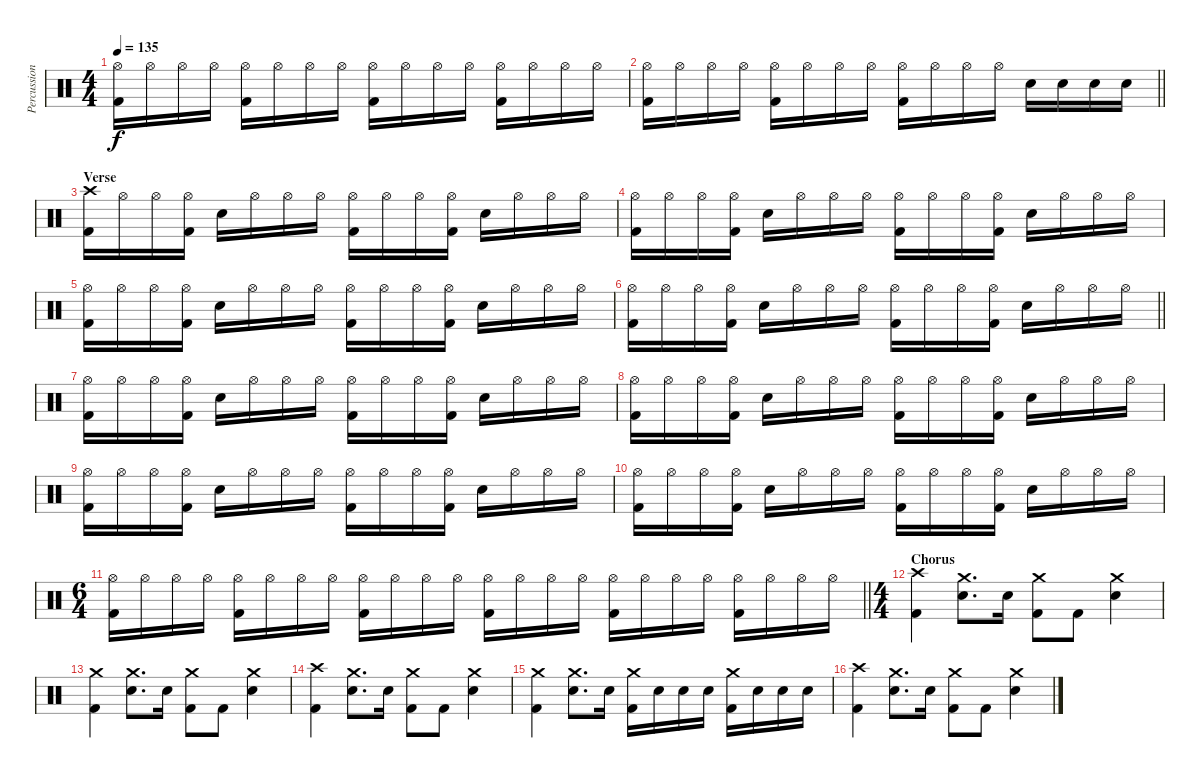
\track ("Percussion" "Percussion") {instrument percussion}
\staff {score}
\articulation defaults
\ts (4 4)
\tempo 135
\clef neutral
\ks c
("Hi-Hat (open)" "Kick (hit) 2").16{dy f} "Hi-Hat (open)".16 "Hi-Hat (open)".16 "Hi-Hat (open)".16 ("Hi-Hat (open)" "Kick (hit) 2").16 "Hi-Hat (open)".16 "Hi-Hat (open)".16 "Hi-Hat (open)".16 ("Hi-Hat (open)" "Kick (hit) 2").16 "Hi-Hat (open)".16 "Hi-Hat (open)".16 "Hi-Hat (open)".16 ("Hi-Hat (open)" "Kick (hit) 2").16 "Hi-Hat (open)".16 "Hi-Hat (open)".16 "Hi-Hat (open)".16 |
\barLineRight lightlight
("Hi-Hat (open)" "Kick (hit) 2").16 "Hi-Hat (open)".16 "Hi-Hat (open)".16 "Hi-Hat (open)".16 ("Hi-Hat (open)" "Kick (hit) 2").16 "Hi-Hat (open)".16 "Hi-Hat (open)".16 "Hi-Hat (open)".16 ("Hi-Hat (open)" "Kick (hit) 2").16 "Hi-Hat (open)".16 "Hi-Hat (open)".16 "Hi-Hat (open)".16 "Electric Snare (hit)".16 "Electric Snare (hit)".16 "Electric Snare (hit)".16 "Electric Snare (hit)".16 |
\section ("" "Verse")
("Crash high (hit)" "Kick (hit) 2").16 "Hi-Hat (open)".16 "Hi-Hat (open)".16 ("Hi-Hat (open)" "Kick (hit) 2").16 "Electric Snare (hit)".16 "Hi-Hat (open)".16 "Hi-Hat (open)".16 "Hi-Hat (open)".16 ("Hi-Hat (open)" "Kick (hit) 2").16 "Hi-Hat (open)".16 "Hi-Hat (open)".16 ("Hi-Hat (open)" "Kick (hit) 2").16 "Electric Snare (hit)".16 "Hi-Hat (open)".16 "Hi-Hat (open)".16 "Hi-Hat (open)".16 |
("Hi-Hat (open)" "Kick (hit) 2").16 "Hi-Hat (open)".16 "Hi-Hat (open)".16 ("Hi-Hat (open)" "Kick (hit) 2").16 "Electric Snare (hit)".16 "Hi-Hat (open)".16 "Hi-Hat (open)".16 "Hi-Hat (open)".16 ("Hi-Hat (open)" "Kick (hit) 2").16 "Hi-Hat (open)".16 "Hi-Hat (open)".16 ("Hi-Hat (open)" "Kick (hit) 2").16 "Electric Snare (hit)".16 "Hi-Hat (open)".16 "Hi-Hat (open)".16 "Hi-Hat (open)".16 |
("Hi-Hat (open)" "Kick (hit) 2").16 "Hi-Hat (open)".16 "Hi-Hat (open)".16 ("Hi-Hat (open)" "Kick (hit) 2").16 "Electric Snare (hit)".16 "Hi-Hat (open)".16 "Hi-Hat (open)".16 "Hi-Hat (open)".16 ("Hi-Hat (open)" "Kick (hit) 2").16 "Hi-Hat (open)".16 "Hi-Hat (open)".16 ("Hi-Hat (open)" "Kick (hit) 2").16 "Electric Snare (hit)".16 "Hi-Hat (open)".16 "Hi-Hat (open)".16 "Hi-Hat (open)".16 |
\barLineRight lightlight
("Hi-Hat (open)" "Kick (hit) 2").16 "Hi-Hat (open)".16 "Hi-Hat (open)".16 ("Hi-Hat (open)" "Kick (hit) 2").16 "Electric Snare (hit)".16 "Hi-Hat (open)".16 "Hi-Hat (open)".16 "Hi-Hat (open)".16 ("Hi-Hat (open)" "Kick (hit) 2").16 "Hi-Hat (open)".16 "Hi-Hat (open)".16 ("Hi-Hat (open)" "Kick (hit) 2").16 "Electric Snare (hit)".16 "Hi-Hat (open)".16 "Hi-Hat (open)".16 "Hi-Hat (open)".16 |
("Hi-Hat (open)" "Kick (hit) 2").16 "Hi-Hat (open)".16 "Hi-Hat (open)".16 ("Hi-Hat (open)" "Kick (hit) 2").16 "Electric Snare (hit)".16 "Hi-Hat (open)".16 "Hi-Hat (open)".16 "Hi-Hat (open)".16 ("Hi-Hat (open)" "Kick (hit) 2").16 "Hi-Hat (open)".16 "Hi-Hat (open)".16 ("Hi-Hat (open)" "Kick (hit) 2").16 "Electric Snare (hit)".16 "Hi-Hat (open)".16 "Hi-Hat (open)".16 "Hi-Hat (open)".16 |
("Hi-Hat (open)" "Kick (hit) 2").16 "Hi-Hat (open)".16 "Hi-Hat (open)".16 ("Hi-Hat (open)" "Kick (hit) 2").16 "Electric Snare (hit)".16 "Hi-Hat (open)".16 "Hi-Hat (open)".16 "Hi-Hat (open)".16 ("Hi-Hat (open)" "Kick (hit) 2").16 "Hi-Hat (open)".16 "Hi-Hat (open)".16 ("Hi-Hat (open)" "Kick (hit) 2").16 "Electric Snare (hit)".16 "Hi-Hat (open)".16 "Hi-Hat (open)".16 "Hi-Hat (open)".16 |
("Hi-Hat (open)" "Kick (hit) 2").16 "Hi-Hat (open)".16 "Hi-Hat (open)".16 ("Hi-Hat (open)" "Kick (hit) 2").16 "Electric Snare (hit)".16 "Hi-Hat (open)".16 "Hi-Hat (open)".16 "Hi-Hat (open)".16 ("Hi-Hat (open)" "Kick (hit) 2").16 "Hi-Hat (open)".16 "Hi-Hat (open)".16 ("Hi-Hat (open)" "Kick (hit) 2").16 "Electric Snare (hit)".16 "Hi-Hat (open)".16 "Hi-Hat (open)".16 "Hi-Hat (open)".16 |
("Hi-Hat (open)" "Kick (hit) 2").16 "Hi-Hat (open)".16 "Hi-Hat (open)".16 ("Hi-Hat (open)" "Kick (hit) 2").16 "Electric Snare (hit)".16 "Hi-Hat (open)".16 "Hi-Hat (open)".16 "Hi-Hat (open)".16 ("Hi-Hat (open)" "Kick (hit) 2").16 "Hi-Hat (open)".16 "Hi-Hat (open)".16 ("Hi-Hat (open)" "Kick (hit) 2").16 "Electric Snare (hit)".16 "Hi-Hat (open)".16 "Hi-Hat (open)".16 "Hi-Hat (open)".16 |
\ts (6 4)
\barLineRight lightlight
("Hi-Hat (open)" "Kick (hit) 2").16 "Hi-Hat (open)".16 "Hi-Hat (open)".16 "Hi-Hat (open)".16 ("Hi-Hat (open)" "Kick (hit) 2").16 "Hi-Hat (open)".16 "Hi-Hat (open)".16 "Hi-Hat (open)".16 ("Hi-Hat (open)" "Kick (hit) 2").16 "Hi-Hat (open)".16 "Hi-Hat (open)".16 "Hi-Hat (open)".16 ("Hi-Hat (open)" "Kick (hit) 2").16 "Hi-Hat (open)".16 "Hi-Hat (open)".16 "Hi-Hat (open)".16 ("Hi-Hat (open)" "Kick (hit) 2").16 "Hi-Hat (open)".16 "Hi-Hat (open)".16 "Hi-Hat (open)".16 ("Hi-Hat (open)" "Kick (hit) 2").16 "Hi-Hat (open)".16 "Hi-Hat (open)".16 "Hi-Hat (open)".16 |
\ts (4 4)
\section ("" "Chorus")
("Crash high (hit)" "Kick (hit) 2").4 ("Crash medium (hit)" "Electric Snare (hit)").8{d} "Electric Snare (hit)".16 ("Crash medium (hit)" "Kick (hit) 2").8 "Kick (hit) 2".8 ("Crash medium (hit)" "Electric Snare (hit)").4 |
("Crash medium (hit)" "Kick (hit) 2").4 ("Crash medium (hit)" "Electric Snare (hit)").8{d} "Electric Snare (hit)".16 ("Crash medium (hit)" "Kick (hit) 2").8 "Kick (hit) 2".8 ("Crash medium (hit)" "Electric Snare (hit)").4 |
("Crash high (hit)" "Kick (hit) 2").4 ("Crash medium (hit)" "Electric Snare (hit)").8{d} "Electric Snare (hit)".16 ("Crash medium (hit)" "Kick (hit) 2").8 "Kick (hit) 2".8 ("Crash medium (hit)" "Electric Snare (hit)").4 |
("Crash medium (hit)" "Kick (hit) 2").4 ("Crash medium (hit)" "Electric Snare (hit)").8{d} "Electric Snare (hit)".16 ("Crash medium (hit)" "Kick (hit) 2").16 "Electric Snare (hit)".16 "Electric Snare (hit)".16 "Electric Snare (hit)".16 ("Crash medium (hit)" "Kick (hit) 2").16 "Electric Snare (hit)".16 "Electric Snare (hit)".16 "Electric Snare (hit)".16 |
("Crash high (hit)" "Kick (hit) 2").4 ("Crash medium (hit)" "Electric Snare (hit)").8{d} "Electric Snare (hit)".16 ("Crash medium (hit)" "Kick (hit) 2").8 "Kick (hit) 2".8 ("Crash medium (hit)" "Electric Snare (hit)").4
